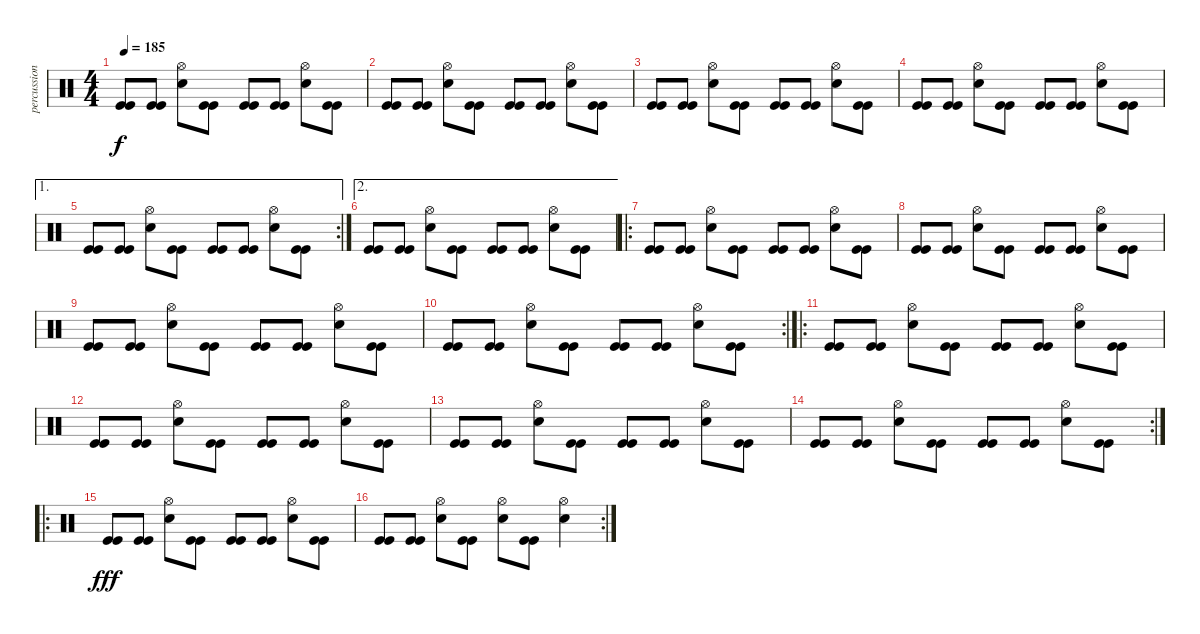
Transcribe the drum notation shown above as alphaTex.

\track ("percussions" "percussion") {instrument percussion}
\staff {score}
\articulation defaults
\ts (4 4)
\tempo 185
\clef neutral
\ks c
("Kick (hit)" "Kick (hit)").8{dy f} ("Kick (hit)" "Kick (hit)").8 ("Snare (hit) 2" "Hi-Hat (open)").8 ("Kick (hit)" "Kick (hit)").8 ("Kick (hit)" "Kick (hit)").8 ("Kick (hit)" "Kick (hit)").8 ("Snare (hit) 2" "Hi-Hat (open)").8 ("Kick (hit)" "Kick (hit)").8 |
("Kick (hit)" "Kick (hit)").8 ("Kick (hit)" "Kick (hit)").8 ("Snare (hit) 2" "Hi-Hat (open)").8 ("Kick (hit)" "Kick (hit)").8 ("Kick (hit)" "Kick (hit)").8 ("Kick (hit)" "Kick (hit)").8 ("Snare (hit) 2" "Hi-Hat (open)").8 ("Kick (hit)" "Kick (hit)").8 |
("Kick (hit)" "Kick (hit)").8 ("Kick (hit)" "Kick (hit)").8 ("Snare (hit) 2" "Hi-Hat (open)").8 ("Kick (hit)" "Kick (hit)").8 ("Kick (hit)" "Kick (hit)").8 ("Kick (hit)" "Kick (hit)").8 ("Snare (hit) 2" "Hi-Hat (open)").8 ("Kick (hit)" "Kick (hit)").8 |
("Kick (hit)" "Kick (hit)").8 ("Kick (hit)" "Kick (hit)").8 ("Snare (hit) 2" "Hi-Hat (open)").8 ("Kick (hit)" "Kick (hit)").8 ("Kick (hit)" "Kick (hit)").8 ("Kick (hit)" "Kick (hit)").8 ("Snare (hit) 2" "Hi-Hat (open)").8 ("Kick (hit)" "Kick (hit)").8 |
\ae 1
\rc 2
("Kick (hit)" "Kick (hit)").8 ("Kick (hit)" "Kick (hit)").8 ("Snare (hit) 2" "Hi-Hat (open)").8 ("Kick (hit)" "Kick (hit)").8 ("Kick (hit)" "Kick (hit)").8 ("Kick (hit)" "Kick (hit)").8 ("Snare (hit) 2" "Hi-Hat (open)").8 ("Kick (hit)" "Kick (hit)").8 |
\ae 2
("Kick (hit)" "Kick (hit)").8 ("Kick (hit)" "Kick (hit)").8 ("Snare (hit) 2" "Hi-Hat (open)").8 ("Kick (hit)" "Kick (hit)").8 ("Kick (hit)" "Kick (hit)").8 ("Kick (hit)" "Kick (hit)").8 ("Snare (hit) 2" "Hi-Hat (open)").8 ("Kick (hit)" "Kick (hit)").8 |
\ro
("Kick (hit)" "Kick (hit)").8 ("Kick (hit)" "Kick (hit)").8 ("Snare (hit) 2" "Hi-Hat (open)").8 ("Kick (hit)" "Kick (hit)").8 ("Kick (hit)" "Kick (hit)").8 ("Kick (hit)" "Kick (hit)").8 ("Snare (hit) 2" "Hi-Hat (open)").8 ("Kick (hit)" "Kick (hit)").8 |
("Kick (hit)" "Kick (hit)").8 ("Kick (hit)" "Kick (hit)").8 ("Snare (hit) 2" "Hi-Hat (open)").8 ("Kick (hit)" "Kick (hit)").8 ("Kick (hit)" "Kick (hit)").8 ("Kick (hit)" "Kick (hit)").8 ("Snare (hit) 2" "Hi-Hat (open)").8 ("Kick (hit)" "Kick (hit)").8 |
("Kick (hit)" "Kick (hit)").8 ("Kick (hit)" "Kick (hit)").8 ("Snare (hit) 2" "Hi-Hat (open)").8 ("Kick (hit)" "Kick (hit)").8 ("Kick (hit)" "Kick (hit)").8 ("Kick (hit)" "Kick (hit)").8 ("Snare (hit) 2" "Hi-Hat (open)").8 ("Kick (hit)" "Kick (hit)").8 |
\rc 2
("Kick (hit)" "Kick (hit)").8 ("Kick (hit)" "Kick (hit)").8 ("Snare (hit) 2" "Hi-Hat (open)").8 ("Kick (hit)" "Kick (hit)").8 ("Kick (hit)" "Kick (hit)").8 ("Kick (hit)" "Kick (hit)").8 ("Snare (hit) 2" "Hi-Hat (open)").8 ("Kick (hit)" "Kick (hit)").8 |
\ro
("Kick (hit)" "Kick (hit)").8 ("Kick (hit)" "Kick (hit)").8 ("Snare (hit) 2" "Hi-Hat (open)").8 ("Kick (hit)" "Kick (hit)").8 ("Kick (hit)" "Kick (hit)").8 ("Kick (hit)" "Kick (hit)").8 ("Snare (hit) 2" "Hi-Hat (open)").8 ("Kick (hit)" "Kick (hit)").8 |
("Kick (hit)" "Kick (hit)").8 ("Kick (hit)" "Kick (hit)").8 ("Snare (hit) 2" "Hi-Hat (open)").8 ("Kick (hit)" "Kick (hit)").8 ("Kick (hit)" "Kick (hit)").8 ("Kick (hit)" "Kick (hit)").8 ("Snare (hit) 2" "Hi-Hat (open)").8 ("Kick (hit)" "Kick (hit)").8 |
("Kick (hit)" "Kick (hit)").8 ("Kick (hit)" "Kick (hit)").8 ("Snare (hit) 2" "Hi-Hat (open)").8 ("Kick (hit)" "Kick (hit)").8 ("Kick (hit)" "Kick (hit)").8 ("Kick (hit)" "Kick (hit)").8 ("Snare (hit) 2" "Hi-Hat (open)").8 ("Kick (hit)" "Kick (hit)").8 |
\rc 2
("Kick (hit)" "Kick (hit)").8 ("Kick (hit)" "Kick (hit)").8 ("Snare (hit) 2" "Hi-Hat (open)").8 ("Kick (hit)" "Kick (hit)").8 ("Kick (hit)" "Kick (hit)").8 ("Kick (hit)" "Kick (hit)").8 ("Snare (hit) 2" "Hi-Hat (open)").8 ("Kick (hit)" "Kick (hit)").8 |
\ro
("Kick (hit)" "Kick (hit)").8{dy fff} ("Kick (hit)" "Kick (hit)").8 ("Snare (hit) 2" "Hi-Hat (open)").8 ("Kick (hit)" "Kick (hit)").8 ("Kick (hit)" "Kick (hit)").8 ("Kick (hit)" "Kick (hit)").8 ("Snare (hit) 2" "Hi-Hat (open)").8 ("Kick (hit)" "Kick (hit)").8 |
\rc 2
("Kick (hit)" "Kick (hit)").8 ("Kick (hit)" "Kick (hit)").8 ("Snare (hit) 2" "Hi-Hat (open)").8 ("Kick (hit)" "Kick (hit)").8 ("Snare (hit) 2" "Hi-Hat (open)").8 ("Kick (hit)" "Kick (hit)").8 ("Snare (hit) 2" "Hi-Hat (open)").4
